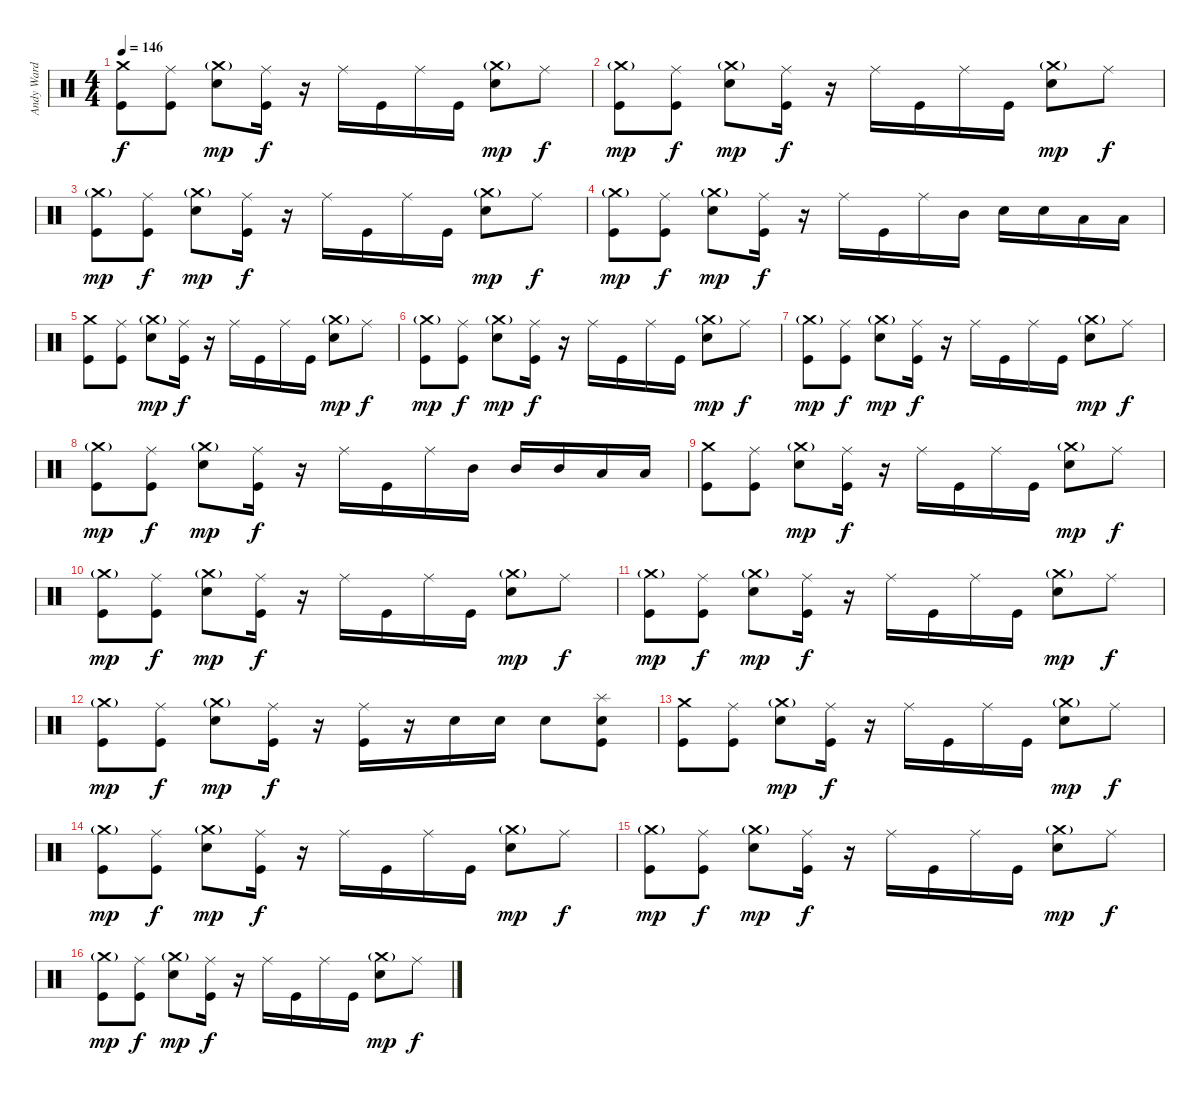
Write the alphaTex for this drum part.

\track ("Andy Ward (Drums)" "Andy Ward ") {instrument percussion}
\staff {score}
\articulation defaults
\ts (4 4)
\tempo 146
\clef neutral
\ks c
("Crash medium (hit)" "Kick (hit)").8{dy f} ("Ride (middle)" "Kick (hit)").8 ("Crash medium (hit)"{g} "Electric Snare (hit)").8{dy mp} ("Ride (middle)" "Kick (hit)").16{dy f} r.16 "Ride (middle)".16 "Kick (hit)".16 "Ride (middle)".16 "Kick (hit)".16 ("Crash medium (hit)"{g} "Electric Snare (hit)").8{dy mp} "Ride (middle)".8{dy f} |
("Crash medium (hit)"{g} "Kick (hit)").8{dy mp} ("Ride (middle)" "Kick (hit)").8{dy f} ("Crash medium (hit)"{g} "Electric Snare (hit)").8{dy mp} ("Ride (middle)" "Kick (hit)").16{dy f} r.16 "Ride (middle)".16 "Kick (hit)".16 "Ride (middle)".16 "Kick (hit)".16 ("Crash medium (hit)"{g} "Electric Snare (hit)").8{dy mp} "Ride (middle)".8{dy f} |
("Crash medium (hit)"{g} "Kick (hit)").8{dy mp} ("Ride (middle)" "Kick (hit)").8{dy f} ("Crash medium (hit)"{g} "Electric Snare (hit)").8{dy mp} ("Ride (middle)" "Kick (hit)").16{dy f} r.16 "Ride (middle)".16 "Kick (hit)".16 "Ride (middle)".16 "Kick (hit)".16 ("Crash medium (hit)"{g} "Electric Snare (hit)").8{dy mp} "Ride (middle)".8{dy f} |
("Crash medium (hit)"{g} "Kick (hit)").8{dy mp} ("Ride (middle)" "Kick (hit)").8{dy f} ("Crash medium (hit)"{g} "Electric Snare (hit)").8{dy mp} ("Ride (middle)" "Kick (hit)").16{dy f} r.16 "Ride (middle)".16 "Kick (hit)".16 "Ride (middle)".16 "Mid Tom (hit)".16 "Electric Snare (hit)".16 "Electric Snare (hit)".16 "Low Tom (hit)".16 "Low Tom (hit)".16 |
("Crash medium (hit)" "Kick (hit)").8 ("Ride (middle)" "Kick (hit)").8 ("Crash medium (hit)"{g} "Electric Snare (hit)").8{dy mp} ("Ride (middle)" "Kick (hit)").16{dy f} r.16 "Ride (middle)".16 "Kick (hit)".16 "Ride (middle)".16 "Kick (hit)".16 ("Crash medium (hit)"{g} "Electric Snare (hit)").8{dy mp} "Ride (middle)".8{dy f} |
("Crash medium (hit)"{g} "Kick (hit)").8{dy mp} ("Ride (middle)" "Kick (hit)").8{dy f} ("Crash medium (hit)"{g} "Electric Snare (hit)").8{dy mp} ("Ride (middle)" "Kick (hit)").16{dy f} r.16 "Ride (middle)".16 "Kick (hit)".16 "Ride (middle)".16 "Kick (hit)".16 ("Crash medium (hit)"{g} "Electric Snare (hit)").8{dy mp} "Ride (middle)".8{dy f} |
("Crash medium (hit)"{g} "Kick (hit)").8{dy mp} ("Ride (middle)" "Kick (hit)").8{dy f} ("Crash medium (hit)"{g} "Electric Snare (hit)").8{dy mp} ("Ride (middle)" "Kick (hit)").16{dy f} r.16 "Ride (middle)".16 "Kick (hit)".16 "Ride (middle)".16 "Kick (hit)".16 ("Crash medium (hit)"{g} "Electric Snare (hit)").8{dy mp} "Ride (middle)".8{dy f} |
("Crash medium (hit)"{g} "Kick (hit)").8{dy mp} ("Ride (middle)" "Kick (hit)").8{dy f} ("Crash medium (hit)"{g} "Electric Snare (hit)").8{dy mp} ("Ride (middle)" "Kick (hit)").16{dy f} r.16 "Ride (middle)".16 "Kick (hit)".16 "Ride (middle)".16 "Mid Tom (hit)".16 "Mid Tom (hit)".16 "Mid Tom (hit)".16 "Low Tom (hit)".16 "Low Tom (hit)".16 |
("Crash medium (hit)" "Kick (hit)").8 ("Ride (middle)" "Kick (hit)").8 ("Crash medium (hit)"{g} "Electric Snare (hit)").8{dy mp} ("Ride (middle)" "Kick (hit)").16{dy f} r.16 "Ride (middle)".16 "Kick (hit)".16 "Ride (middle)".16 "Kick (hit)".16 ("Crash medium (hit)"{g} "Electric Snare (hit)").8{dy mp} "Ride (middle)".8{dy f} |
("Crash medium (hit)"{g} "Kick (hit)").8{dy mp} ("Ride (middle)" "Kick (hit)").8{dy f} ("Crash medium (hit)"{g} "Electric Snare (hit)").8{dy mp} ("Ride (middle)" "Kick (hit)").16{dy f} r.16 "Ride (middle)".16 "Kick (hit)".16 "Ride (middle)".16 "Kick (hit)".16 ("Crash medium (hit)"{g} "Electric Snare (hit)").8{dy mp} "Ride (middle)".8{dy f} |
("Crash medium (hit)"{g} "Kick (hit)").8{dy mp} ("Ride (middle)" "Kick (hit)").8{dy f} ("Crash medium (hit)"{g} "Electric Snare (hit)").8{dy mp} ("Ride (middle)" "Kick (hit)").16{dy f} r.16 "Ride (middle)".16 "Kick (hit)".16 "Ride (middle)".16 "Kick (hit)".16 ("Crash medium (hit)"{g} "Electric Snare (hit)").8{dy mp} "Ride (middle)".8{dy f} |
("Crash medium (hit)"{g} "Kick (hit)").8{dy mp} ("Ride (middle)" "Kick (hit)").8{dy f} ("Crash medium (hit)"{g} "Electric Snare (hit)").8{dy mp} ("Ride (middle)" "Kick (hit)").16{dy f} r.16 ("Ride (middle)" "Kick (hit)").16 r.16 "Electric Snare (hit)".16 "Electric Snare (hit)".16 "Electric Snare (hit)".8 ("Splash (hit)" "Electric Snare (hit)" "Kick (hit)").8 |
("Crash medium (hit)" "Kick (hit)").8 ("Ride (middle)" "Kick (hit)").8 ("Crash medium (hit)"{g} "Electric Snare (hit)").8{dy mp} ("Ride (middle)" "Kick (hit)").16{dy f} r.16 "Ride (middle)".16 "Kick (hit)".16 "Ride (middle)".16 "Kick (hit)".16 ("Crash medium (hit)"{g} "Electric Snare (hit)").8{dy mp} "Ride (middle)".8{dy f} |
("Crash medium (hit)"{g} "Kick (hit)").8{dy mp} ("Ride (middle)" "Kick (hit)").8{dy f} ("Crash medium (hit)"{g} "Electric Snare (hit)").8{dy mp} ("Ride (middle)" "Kick (hit)").16{dy f} r.16 "Ride (middle)".16 "Kick (hit)".16 "Ride (middle)".16 "Kick (hit)".16 ("Crash medium (hit)"{g} "Electric Snare (hit)").8{dy mp} "Ride (middle)".8{dy f} |
("Crash medium (hit)"{g} "Kick (hit)").8{dy mp} ("Ride (middle)" "Kick (hit)").8{dy f} ("Crash medium (hit)"{g} "Electric Snare (hit)").8{dy mp} ("Ride (middle)" "Kick (hit)").16{dy f} r.16 "Ride (middle)".16 "Kick (hit)".16 "Ride (middle)".16 "Kick (hit)".16 ("Crash medium (hit)"{g} "Electric Snare (hit)").8{dy mp} "Ride (middle)".8{dy f} |
("Crash medium (hit)"{g} "Kick (hit)").8{dy mp} ("Ride (middle)" "Kick (hit)").8{dy f} ("Crash medium (hit)"{g} "Electric Snare (hit)").8{dy mp} ("Ride (middle)" "Kick (hit)").16{dy f} r.16 "Ride (middle)".16 "Kick (hit)".16 "Ride (middle)".16 "Kick (hit)".16 ("Crash medium (hit)"{g} "Electric Snare (hit)").8{dy mp} "Ride (middle)".8{dy f}
